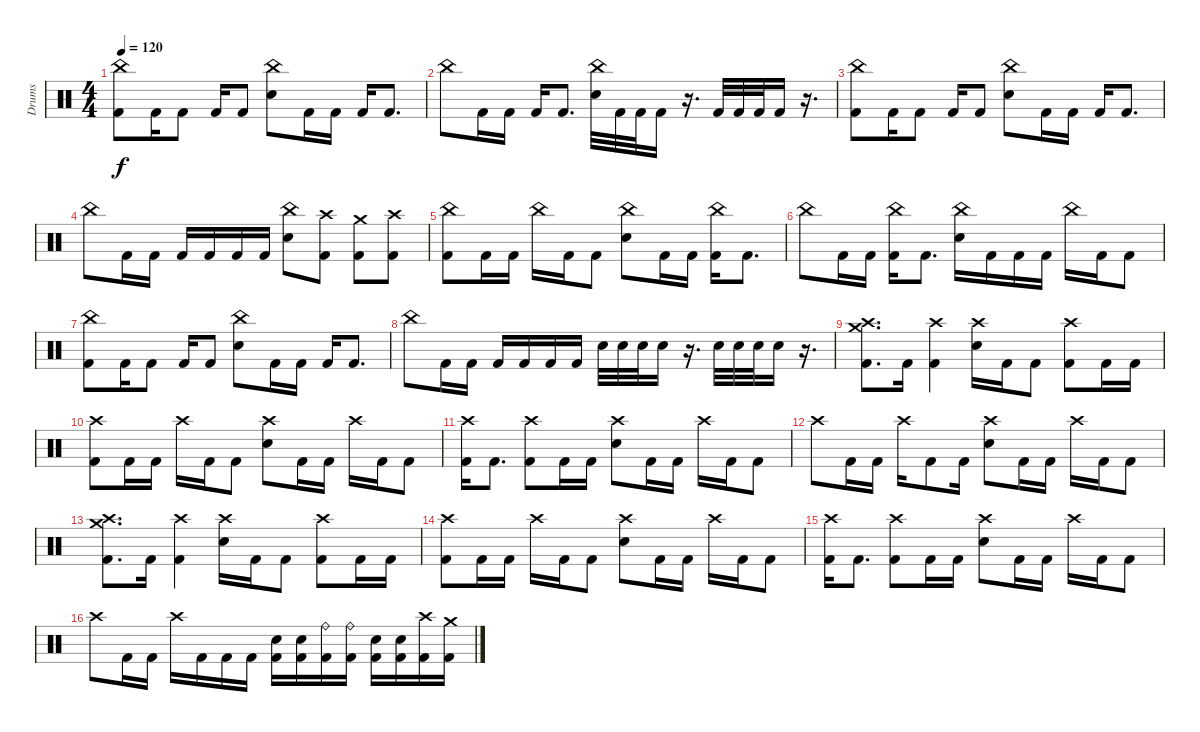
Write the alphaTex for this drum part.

\track ("Drums" "Drums") {instrument percussion}
\staff {score}
\articulation defaults
\ts (4 4)
\tempo 120
\clef neutral
\ks c
("China (hit)" "Kick (hit) 2").8{dy f} "Kick (hit) 2".16 "Kick (hit) 2".8 "Kick (hit) 2".16 "Kick (hit) 2".8 ("China (hit)" "Electric Snare (hit)").8 "Kick (hit) 2".16 "Kick (hit) 2".16 "Kick (hit) 2".16 "Kick (hit) 2".8{d} |
"China (hit)".8 "Kick (hit) 2".16 "Kick (hit) 2".16 "Kick (hit) 2".16 "Kick (hit) 2".8{d} ("China (hit)" "Electric Snare (hit)").32 "Kick (hit) 2".32 "Kick (hit) 2".32 "Kick (hit) 2".16 r.16{d} "Kick (hit) 2".32 "Kick (hit) 2".32 "Kick (hit) 2".32 "Kick (hit) 2".16 r.16{d} |
("China (hit)" "Kick (hit) 2").8 "Kick (hit) 2".16 "Kick (hit) 2".8 "Kick (hit) 2".16 "Kick (hit) 2".8 ("China (hit)" "Electric Snare (hit)").8 "Kick (hit) 2".16 "Kick (hit) 2".16 "Kick (hit) 2".16 "Kick (hit) 2".8{d} |
"China (hit)".8 "Kick (hit) 2".16 "Kick (hit) 2".16 "Kick (hit) 2".16 "Kick (hit) 2".16 "Kick (hit) 2".16 "Kick (hit) 2".16 ("China (hit)" "Electric Snare (hit)").8 ("Crash high (hit)" "Kick (hit) 2").8 ("Crash medium (hit)" "Kick (hit) 2").8 ("Crash high (hit)" "Kick (hit) 2").8 |
("China (hit)" "Kick (hit) 2").8 "Kick (hit) 2".16 "Kick (hit) 2".16 "China (hit)".16 "Kick (hit) 2".16 "Kick (hit) 2".8 ("China (hit)" "Electric Snare (hit)").8 "Kick (hit) 2".16 "Kick (hit) 2".16 ("China (hit)" "Kick (hit) 2").16 "Kick (hit) 2".8{d} |
"China (hit)".8 "Kick (hit) 2".16 "Kick (hit) 2".16 ("China (hit)" "Kick (hit) 2").16 "Kick (hit) 2".8{d} ("China (hit)" "Electric Snare (hit)").16 "Kick (hit) 2".16 "Kick (hit) 2".16 "Kick (hit) 2".16 "China (hit)".16 "Kick (hit) 2".16 "Kick (hit) 2".8 |
("China (hit)" "Kick (hit) 2").8 "Kick (hit) 2".16 "Kick (hit) 2".8 "Kick (hit) 2".16 "Kick (hit) 2".8 ("China (hit)" "Electric Snare (hit)").8 "Kick (hit) 2".16 "Kick (hit) 2".16 "Kick (hit) 2".16 "Kick (hit) 2".8{d} |
"China (hit)".8 "Kick (hit) 2".16 "Kick (hit) 2".16 "Kick (hit) 2".16 "Kick (hit) 2".16 "Kick (hit) 2".16 "Kick (hit) 2".16 "Electric Snare (hit)".32 "Electric Snare (hit)".32 "Electric Snare (hit)".32 "Electric Snare (hit)".16 r.16{d} "Electric Snare (hit)".32 "Electric Snare (hit)".32 "Electric Snare (hit)".32 "Electric Snare (hit)".16 r.16{d} |
("Crash high (hit)" "Crash medium (hit)" "Kick (hit) 2").8{d} "Kick (hit) 2".16 ("Crash high (hit)" "Kick (hit) 2").4 ("Crash high (hit)" "Electric Snare (hit)").16 "Kick (hit) 2".16 "Kick (hit) 2".8 ("Crash high (hit)" "Kick (hit) 2").8 "Kick (hit) 2".16 "Kick (hit) 2".16 |
("Crash high (hit)" "Kick (hit) 2").8 "Kick (hit) 2".16 "Kick (hit) 2".16 "Crash high (hit)".16 "Kick (hit) 2".16 "Kick (hit) 2".8 ("Crash high (hit)" "Electric Snare (hit)").8 "Kick (hit) 2".16 "Kick (hit) 2".16 "Crash high (hit)".16 "Kick (hit) 2".16 "Kick (hit) 2".8 |
("Crash high (hit)" "Kick (hit) 2").16 "Kick (hit) 2".8{d} ("Crash high (hit)" "Kick (hit) 2").8 "Kick (hit) 2".16 "Kick (hit) 2".16 ("Crash high (hit)" "Electric Snare (hit)").8 "Kick (hit) 2".16 "Kick (hit) 2".16 "Crash high (hit)".16 "Kick (hit) 2".16 "Kick (hit) 2".8 |
"Crash high (hit)".8 "Kick (hit) 2".16 "Kick (hit) 2".16 "Crash high (hit)".16 "Kick (hit) 2".8 "Kick (hit) 2".16 ("Crash high (hit)" "Electric Snare (hit)").8 "Kick (hit) 2".16 "Kick (hit) 2".16 "Crash high (hit)".16 "Kick (hit) 2".16 "Kick (hit) 2".8 |
("Crash high (hit)" "Crash medium (hit)" "Kick (hit) 2").8{d} "Kick (hit) 2".16 ("Crash high (hit)" "Kick (hit) 2").4 ("Crash high (hit)" "Electric Snare (hit)").16 "Kick (hit) 2".16 "Kick (hit) 2".8 ("Crash high (hit)" "Kick (hit) 2").8 "Kick (hit) 2".16 "Kick (hit) 2".16 |
("Crash high (hit)" "Kick (hit) 2").8 "Kick (hit) 2".16 "Kick (hit) 2".16 "Crash high (hit)".16 "Kick (hit) 2".16 "Kick (hit) 2".8 ("Crash high (hit)" "Electric Snare (hit)").8 "Kick (hit) 2".16 "Kick (hit) 2".16 "Crash high (hit)".16 "Kick (hit) 2".16 "Kick (hit) 2".8 |
("Crash high (hit)" "Kick (hit) 2").16 "Kick (hit) 2".8{d} ("Crash high (hit)" "Kick (hit) 2").8 "Kick (hit) 2".16 "Kick (hit) 2".16 ("Crash high (hit)" "Electric Snare (hit)").8 "Kick (hit) 2".16 "Kick (hit) 2".16 "Crash high (hit)".16 "Kick (hit) 2".16 "Kick (hit) 2".8 |
"Crash high (hit)".8 "Kick (hit) 2".16 "Kick (hit) 2".16 "Crash high (hit)".16 "Kick (hit) 2".16 "Kick (hit) 2".16 "Kick (hit) 2".16 ("Electric Snare (hit)" "Kick (hit) 2").16 ("Electric Snare (hit)" "Kick (hit) 2").16 ("Ride (bell)" "Kick (hit) 2").16 ("Ride (bell)" "Kick (hit) 2").16 ("Electric Snare (hit)" "Kick (hit) 2").16 ("Electric Snare (hit)" "Kick (hit) 2").16 ("Crash high (hit)" "Kick (hit) 2").16 ("Crash medium (hit)" "Kick (hit) 2").16
